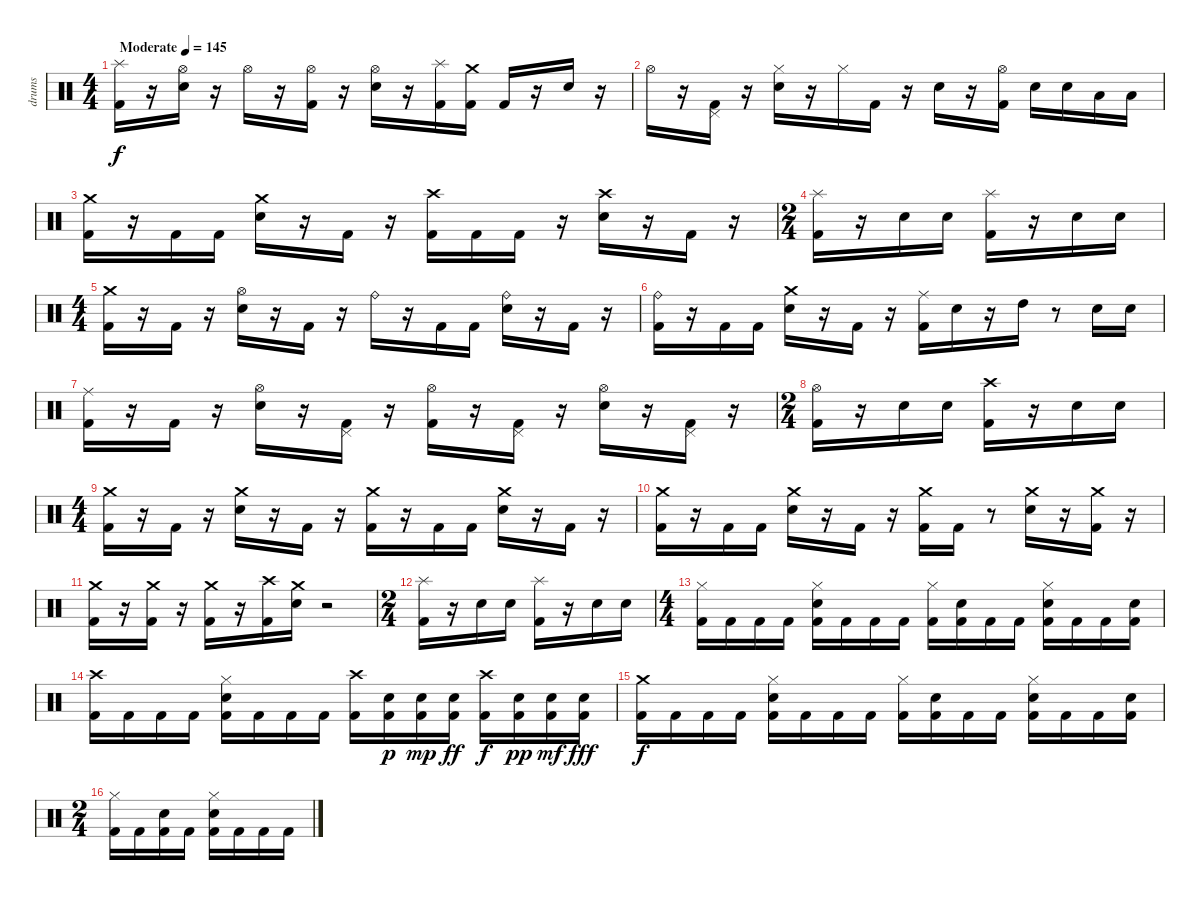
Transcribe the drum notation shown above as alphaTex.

\track ("drums" "drums") {instrument percussion}
\staff {score}
\articulation defaults
\ts (4 4)
\tempo (145 "Moderate")
\clef neutral
\ks c
("Kick (hit) 2" "Splash (hit)").16{dy f} r.16 ("Snare (hit) 2" "Hi-Hat (open)").16 r.16 "Hi-Hat (open)".16 r.16 ("Kick (hit) 2" "Hi-Hat (open)").16 r.16 ("Snare (hit) 2" "Hi-Hat (open)").16 r.16 ("Kick (hit) 2" "Splash (hit)").16 ("Kick (hit) 2" "Crash medium (hit)").16 "Kick (hit) 2".16 r.16 "Snare (hit) 2".16 r.16 |
"Hi-Hat (open)".16 r.16 ("Kick (hit) 2" "Pedal Hi-Hat (hit)").16 r.16 ("Snare (hit) 2" "Hi-Hat (closed)").16 r.16 "Hi-Hat (closed)".16 "Kick (hit) 2".16 r.16 "Snare (hit) 2".16 r.16 ("Kick (hit) 2" "Hi-Hat (open)").16 "Snare (hit) 2".16 "Snare (hit) 2".16 "Low Tom (hit)".16 "Low Tom (hit)".16 |
("Kick (hit) 2" "Crash medium (hit)").16 r.16 "Kick (hit) 2".16 "Kick (hit) 2".16 ("Snare (hit) 2" "Crash medium (hit)").16 r.16 "Kick (hit) 2".16 r.16 ("Kick (hit) 2" "Crash high (hit)").16 "Kick (hit) 2".16 "Kick (hit) 2".16 r.16 ("Snare (hit) 2" "Crash high (hit)").16 r.16 "Kick (hit) 2".16 r.16 |
\ts (2 4)
("Kick (hit) 2" "Splash (hit)").16 r.16 "Snare (hit) 2".16 "Snare (hit) 2".16 ("Kick (hit) 2" "Splash (hit)").16 r.16 "Snare (hit) 2".16 "Snare (hit) 2".16 |
\ts (4 4)
("Kick (hit) 2" "Crash medium (hit)").16 r.16 "Kick (hit) 2".16 r.16 ("Snare (hit) 2" "Hi-Hat (open)").16 r.16 "Kick (hit) 2".16 r.16 "Ride (bell)".16 r.16 "Kick (hit) 2".16 "Kick (hit) 2".16 ("Snare (hit) 2" "Ride (bell)").16 r.16 "Kick (hit) 2".16 r.16 |
("Kick (hit) 2" "Ride (bell)").16 r.16 "Kick (hit) 2".16 "Kick (hit) 2".16 ("Snare (hit) 2" "Crash medium (hit)").16 r.16 "Kick (hit) 2".16 r.16 ("Kick (hit) 2" "Ride (middle)").16 "Electric Snare (hit)".16 r.16 "High Tom (hit)".16 r.8 "Snare (hit) 2".16 "Snare (hit) 2".16 |
("Kick (hit) 2" "Ride (middle)").16 r.16 "Kick (hit) 2".16 r.16 ("Snare (hit) 2" "Hi-Hat (open)").16 r.16 ("Kick (hit) 2" "Pedal Hi-Hat (hit)").16 r.16 ("Kick (hit) 2" "Hi-Hat (open)").16 r.16 ("Kick (hit) 2" "Pedal Hi-Hat (hit)").16 r.16 ("Snare (hit) 2" "Hi-Hat (open)").16 r.16 ("Kick (hit) 2" "Pedal Hi-Hat (hit)").16 r.16 |
\ts (2 4)
("Kick (hit) 2" "Hi-Hat (open)").16 r.16 "Snare (hit) 2".16 "Snare (hit) 2".16 ("Kick (hit) 2" "Crash high (hit)").16 r.16 "Snare (hit) 2".16 "Snare (hit) 2".16 |
\ts (4 4)
("Kick (hit) 2" "Crash medium (hit)").16 r.16 "Kick (hit) 2".16 r.16 ("Snare (hit) 2" "Crash medium (hit)").16 r.16 "Kick (hit) 2".16 r.16 ("Kick (hit) 2" "Crash medium (hit)").16 r.16 "Kick (hit) 2".16 "Kick (hit) 2".16 ("Snare (hit) 2" "Crash medium (hit)").16 r.16 "Kick (hit) 2".16 r.16 |
("Kick (hit) 2" "Crash medium (hit)").16 r.16 "Kick (hit) 2".16 "Kick (hit) 2".16 ("Snare (hit) 2" "Crash medium (hit)").16 r.16 "Kick (hit) 2".16 r.16 ("Kick (hit) 2" "Crash medium (hit)").16 "Kick (hit) 2".16 r.8 ("Snare (hit) 2" "Crash medium (hit)").16 r.16 ("Kick (hit) 2" "Crash medium (hit)").16 r.16 |
("Kick (hit) 2" "Crash medium (hit)").16 r.16 ("Kick (hit) 2" "Crash medium (hit)").16 r.16 ("Kick (hit) 2" "Crash medium (hit)").16 r.16 ("Kick (hit) 2" "Crash high (hit)").16 ("Snare (hit) 2" "Crash medium (hit)").16 r.2 |
\ts (2 4)
("Kick (hit) 2" "Splash (hit)").16 r.16 "Snare (hit) 2".16 "Snare (hit) 2".16 ("Kick (hit) 2" "Splash (hit)").16 r.16 "Snare (hit) 2".16 "Snare (hit) 2".16 |
\ts (4 4)
("Kick (hit) 2" "Hi-Hat (closed)").16 "Kick (hit) 2".16 "Kick (hit) 2".16 "Kick (hit) 2".16 ("Kick (hit) 2" "Snare (hit) 2" "Hi-Hat (closed)").16 "Kick (hit) 2".16 "Kick (hit) 2".16 "Kick (hit) 2".16 ("Kick (hit) 2" "Hi-Hat (closed)").16 ("Kick (hit) 2" "Snare (hit) 2").16 "Kick (hit) 2".16 "Kick (hit) 2".16 ("Kick (hit) 2" "Snare (hit) 2" "Hi-Hat (closed)").16 "Kick (hit) 2".16 "Kick (hit) 2".16 ("Kick (hit) 2" "Snare (hit) 2").16 |
("Kick (hit) 2" "Crash high (hit)").16 "Kick (hit) 2".16 "Kick (hit) 2".16 "Kick (hit) 2".16 ("Kick (hit) 2" "Snare (hit) 2" "Hi-Hat (closed)").16 "Kick (hit) 2".16 "Kick (hit) 2".16 "Kick (hit) 2".16 ("Kick (hit) 2" "Crash high (hit)").16 ("Kick (hit) 2" "Snare (hit) 2").16{dy p} ("Kick (hit) 2" "Snare (hit) 2").16{dy mp} ("Kick (hit) 2" "Snare (hit) 2").16{dy ff} ("Kick (hit) 2" "Crash high (hit)").16{dy f} ("Kick (hit) 2" "Snare (hit) 2").16{dy pp} ("Kick (hit) 2" "Snare (hit) 2").16{dy mf} ("Kick (hit) 2" "Snare (hit) 2").16{dy fff} |
("Kick (hit) 2" "Crash medium (hit)").16{dy f} "Kick (hit) 2".16 "Kick (hit) 2".16 "Kick (hit) 2".16 ("Kick (hit) 2" "Snare (hit) 2" "Hi-Hat (closed)").16 "Kick (hit) 2".16 "Kick (hit) 2".16 "Kick (hit) 2".16 ("Kick (hit) 2" "Hi-Hat (closed)").16 ("Kick (hit) 2" "Snare (hit) 2").16 "Kick (hit) 2".16 "Kick (hit) 2".16 ("Kick (hit) 2" "Snare (hit) 2" "Hi-Hat (closed)").16 "Kick (hit) 2".16 "Kick (hit) 2".16 ("Kick (hit) 2" "Snare (hit) 2").16 |
\ts (2 4)
("Kick (hit) 2" "Hi-Hat (closed)").16 "Kick (hit) 2".16 ("Kick (hit) 2" "Snare (hit) 2").16 "Kick (hit) 2".16 ("Kick (hit) 2" "Snare (hit) 2" "Hi-Hat (closed)").16 "Kick (hit) 2".16 "Kick (hit) 2".16 "Kick (hit) 2".16
